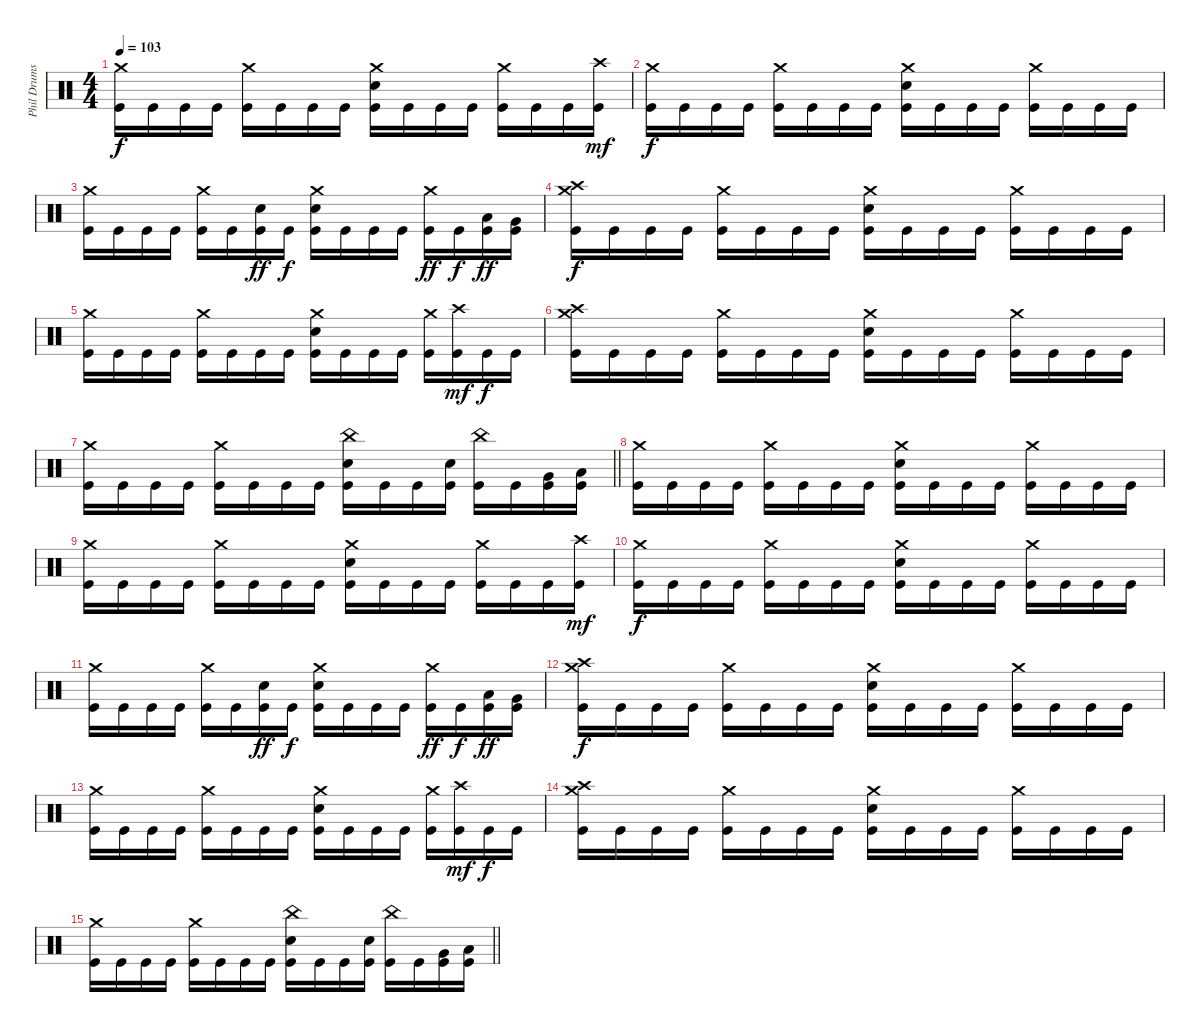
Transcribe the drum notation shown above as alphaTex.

\track ("Phil Drums" "Phil Drums") {instrument percussion}
\staff {score}
\articulation defaults
\ts (4 4)
\tempo 103
\clef neutral
\ks c
("Crash medium (hit)" "Kick (hit)").16{dy f} "Kick (hit)".16 "Kick (hit)".16 "Kick (hit)".16 ("Crash medium (hit)" "Kick (hit)").16 "Kick (hit)".16 "Kick (hit)".16 "Kick (hit)".16 ("Crash medium (hit)" "Snare (hit) 2" "Kick (hit)").16 "Kick (hit)".16 "Kick (hit)".16 "Kick (hit)".16 ("Crash medium (hit)" "Kick (hit)").16 "Kick (hit)".16 "Kick (hit)".16 ("Crash high (hit)" "Kick (hit)").16{dy mf} |
("Crash medium (hit)" "Kick (hit)").16{dy f} "Kick (hit)".16 "Kick (hit)".16 "Kick (hit)".16 ("Crash medium (hit)" "Kick (hit)").16 "Kick (hit)".16 "Kick (hit)".16 "Kick (hit)".16 ("Crash medium (hit)" "Snare (hit) 2" "Kick (hit)").16 "Kick (hit)".16 "Kick (hit)".16 "Kick (hit)".16 ("Crash medium (hit)" "Kick (hit)").16 "Kick (hit)".16 "Kick (hit)".16 "Kick (hit)".16 |
("Crash medium (hit)" "Kick (hit)").16 "Kick (hit)".16 "Kick (hit)".16 "Kick (hit)".16 ("Crash medium (hit)" "Kick (hit)").16 "Kick (hit)".16 ("Snare (hit) 2" "Kick (hit)").16{dy ff} "Kick (hit)".16{dy f} ("Crash medium (hit)" "Snare (hit) 2" "Kick (hit)").16 "Kick (hit)".16 "Kick (hit)".16 "Kick (hit)".16 ("Crash medium (hit)" "Kick (hit)").16{dy ff} "Kick (hit)".16{dy f} ("Low Tom (hit)" "Kick (hit)").16{dy ff} ("Very Low Tom (hit)" "Kick (hit)").16 |
("Crash medium (hit)" "Crash high (hit)" "Kick (hit)").16{dy f} "Kick (hit)".16 "Kick (hit)".16 "Kick (hit)".16 ("Crash medium (hit)" "Kick (hit)").16 "Kick (hit)".16 "Kick (hit)".16 "Kick (hit)".16 ("Crash medium (hit)" "Snare (hit) 2" "Kick (hit)").16 "Kick (hit)".16 "Kick (hit)".16 "Kick (hit)".16 ("Crash medium (hit)" "Kick (hit)").16 "Kick (hit)".16 "Kick (hit)".16 "Kick (hit)".16 |
("Crash medium (hit)" "Kick (hit)").16 "Kick (hit)".16 "Kick (hit)".16 "Kick (hit)".16 ("Crash medium (hit)" "Kick (hit)").16 "Kick (hit)".16 "Kick (hit)".16 "Kick (hit)".16 ("Crash medium (hit)" "Snare (hit) 2" "Kick (hit)").16 "Kick (hit)".16 "Kick (hit)".16 "Kick (hit)".16 ("Crash medium (hit)" "Kick (hit)").16 ("Crash high (hit)" "Kick (hit)").16{dy mf} "Kick (hit)".16{dy f} "Kick (hit)".16 |
("Crash medium (hit)" "Crash high (hit)" "Kick (hit)").16 "Kick (hit)".16 "Kick (hit)".16 "Kick (hit)".16 ("Crash medium (hit)" "Kick (hit)").16 "Kick (hit)".16 "Kick (hit)".16 "Kick (hit)".16 ("Crash medium (hit)" "Snare (hit) 2" "Kick (hit)").16 "Kick (hit)".16 "Kick (hit)".16 "Kick (hit)".16 ("Crash medium (hit)" "Kick (hit)").16 "Kick (hit)".16 "Kick (hit)".16 "Kick (hit)".16 |
\barLineRight lightlight
("Crash medium (hit)" "Kick (hit)").16 "Kick (hit)".16 "Kick (hit)".16 "Kick (hit)".16 ("Crash medium (hit)" "Kick (hit)").16 "Kick (hit)".16 "Kick (hit)".16 "Kick (hit)".16 ("China (hit)" "Snare (hit) 2" "Kick (hit)").16 "Kick (hit)".16 "Kick (hit)".16 ("Snare (hit) 2" "Kick (hit)").16 ("China (hit)" "Kick (hit)").16 "Kick (hit)".16 ("Very Low Tom (hit)" "Kick (hit)").16 ("Low Floor Tom (hit)" "Kick (hit)").16 |
("Crash medium (hit)" "Kick (hit)").16 "Kick (hit)".16 "Kick (hit)".16 "Kick (hit)".16 ("Crash medium (hit)" "Kick (hit)").16 "Kick (hit)".16 "Kick (hit)".16 "Kick (hit)".16 ("Crash medium (hit)" "Snare (hit) 2" "Kick (hit)").16 "Kick (hit)".16 "Kick (hit)".16 "Kick (hit)".16 ("Crash medium (hit)" "Kick (hit)").16 "Kick (hit)".16 "Kick (hit)".16 "Kick (hit)".16 |
("Crash medium (hit)" "Kick (hit)").16 "Kick (hit)".16 "Kick (hit)".16 "Kick (hit)".16 ("Crash medium (hit)" "Kick (hit)").16 "Kick (hit)".16 "Kick (hit)".16 "Kick (hit)".16 ("Crash medium (hit)" "Snare (hit) 2" "Kick (hit)").16 "Kick (hit)".16 "Kick (hit)".16 "Kick (hit)".16 ("Crash medium (hit)" "Kick (hit)").16 "Kick (hit)".16 "Kick (hit)".16 ("Crash high (hit)" "Kick (hit)").16{dy mf} |
("Crash medium (hit)" "Kick (hit)").16{dy f} "Kick (hit)".16 "Kick (hit)".16 "Kick (hit)".16 ("Crash medium (hit)" "Kick (hit)").16 "Kick (hit)".16 "Kick (hit)".16 "Kick (hit)".16 ("Crash medium (hit)" "Snare (hit) 2" "Kick (hit)").16 "Kick (hit)".16 "Kick (hit)".16 "Kick (hit)".16 ("Crash medium (hit)" "Kick (hit)").16 "Kick (hit)".16 "Kick (hit)".16 "Kick (hit)".16 |
("Crash medium (hit)" "Kick (hit)").16 "Kick (hit)".16 "Kick (hit)".16 "Kick (hit)".16 ("Crash medium (hit)" "Kick (hit)").16 "Kick (hit)".16 ("Snare (hit) 2" "Kick (hit)").16{dy ff} "Kick (hit)".16{dy f} ("Crash medium (hit)" "Snare (hit) 2" "Kick (hit)").16 "Kick (hit)".16 "Kick (hit)".16 "Kick (hit)".16 ("Crash medium (hit)" "Kick (hit)").16{dy ff} "Kick (hit)".16{dy f} ("Low Tom (hit)" "Kick (hit)").16{dy ff} ("Very Low Tom (hit)" "Kick (hit)").16 |
("Crash medium (hit)" "Crash high (hit)" "Kick (hit)").16{dy f} "Kick (hit)".16 "Kick (hit)".16 "Kick (hit)".16 ("Crash medium (hit)" "Kick (hit)").16 "Kick (hit)".16 "Kick (hit)".16 "Kick (hit)".16 ("Crash medium (hit)" "Snare (hit) 2" "Kick (hit)").16 "Kick (hit)".16 "Kick (hit)".16 "Kick (hit)".16 ("Crash medium (hit)" "Kick (hit)").16 "Kick (hit)".16 "Kick (hit)".16 "Kick (hit)".16 |
("Crash medium (hit)" "Kick (hit)").16 "Kick (hit)".16 "Kick (hit)".16 "Kick (hit)".16 ("Crash medium (hit)" "Kick (hit)").16 "Kick (hit)".16 "Kick (hit)".16 "Kick (hit)".16 ("Crash medium (hit)" "Snare (hit) 2" "Kick (hit)").16 "Kick (hit)".16 "Kick (hit)".16 "Kick (hit)".16 ("Crash medium (hit)" "Kick (hit)").16 ("Crash high (hit)" "Kick (hit)").16{dy mf} "Kick (hit)".16{dy f} "Kick (hit)".16 |
("Crash medium (hit)" "Crash high (hit)" "Kick (hit)").16 "Kick (hit)".16 "Kick (hit)".16 "Kick (hit)".16 ("Crash medium (hit)" "Kick (hit)").16 "Kick (hit)".16 "Kick (hit)".16 "Kick (hit)".16 ("Crash medium (hit)" "Snare (hit) 2" "Kick (hit)").16 "Kick (hit)".16 "Kick (hit)".16 "Kick (hit)".16 ("Crash medium (hit)" "Kick (hit)").16 "Kick (hit)".16 "Kick (hit)".16 "Kick (hit)".16 |
\barLineRight lightlight
("Crash medium (hit)" "Kick (hit)").16 "Kick (hit)".16 "Kick (hit)".16 "Kick (hit)".16 ("Crash medium (hit)" "Kick (hit)").16 "Kick (hit)".16 "Kick (hit)".16 "Kick (hit)".16 ("China (hit)" "Snare (hit) 2" "Kick (hit)").16 "Kick (hit)".16 "Kick (hit)".16 ("Snare (hit) 2" "Kick (hit)").16 ("China (hit)" "Kick (hit)").16 "Kick (hit)".16 ("Very Low Tom (hit)" "Kick (hit)").16 ("Low Floor Tom (hit)" "Kick (hit)").16
